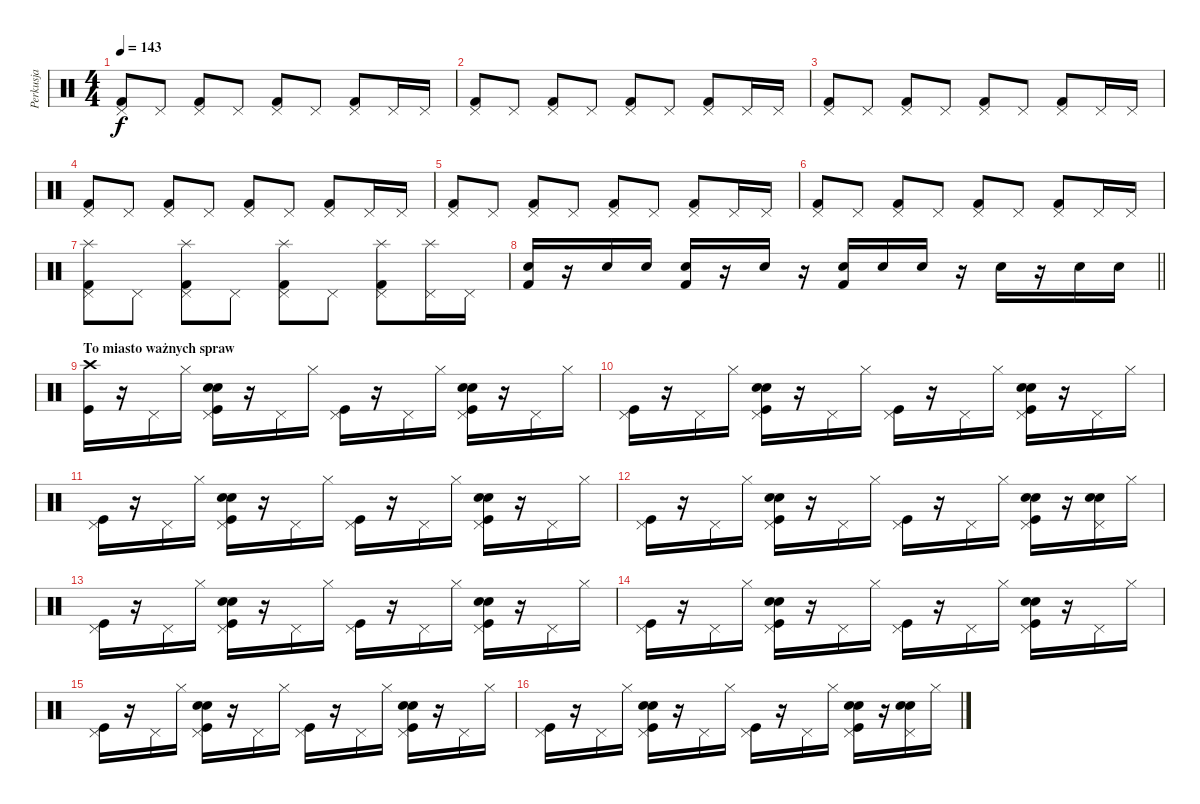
\track ("Perkusja" "Perkusja") {instrument percussion}
\staff {score}
\articulation defaults
\ts (4 4)
\tempo 143
\clef neutral
\ks c
("Pedal Hi-Hat (hit)" "Kick (hit) 2").8{dy f} "Pedal Hi-Hat (hit)".8 ("Pedal Hi-Hat (hit)" "Kick (hit) 2").8 "Pedal Hi-Hat (hit)".8 ("Pedal Hi-Hat (hit)" "Kick (hit) 2").8 "Pedal Hi-Hat (hit)".8 ("Pedal Hi-Hat (hit)" "Kick (hit) 2").8 "Pedal Hi-Hat (hit)".16 "Pedal Hi-Hat (hit)".16 |
("Pedal Hi-Hat (hit)" "Kick (hit) 2").8 "Pedal Hi-Hat (hit)".8 ("Pedal Hi-Hat (hit)" "Kick (hit) 2").8 "Pedal Hi-Hat (hit)".8 ("Pedal Hi-Hat (hit)" "Kick (hit) 2").8 "Pedal Hi-Hat (hit)".8 ("Pedal Hi-Hat (hit)" "Kick (hit) 2").8 "Pedal Hi-Hat (hit)".16 "Pedal Hi-Hat (hit)".16 |
("Pedal Hi-Hat (hit)" "Kick (hit) 2").8 "Pedal Hi-Hat (hit)".8 ("Pedal Hi-Hat (hit)" "Kick (hit) 2").8 "Pedal Hi-Hat (hit)".8 ("Pedal Hi-Hat (hit)" "Kick (hit) 2").8 "Pedal Hi-Hat (hit)".8 ("Pedal Hi-Hat (hit)" "Kick (hit) 2").8 "Pedal Hi-Hat (hit)".16 "Pedal Hi-Hat (hit)".16 |
("Pedal Hi-Hat (hit)" "Kick (hit) 2").8 "Pedal Hi-Hat (hit)".8 ("Pedal Hi-Hat (hit)" "Kick (hit) 2").8 "Pedal Hi-Hat (hit)".8 ("Pedal Hi-Hat (hit)" "Kick (hit) 2").8 "Pedal Hi-Hat (hit)".8 ("Pedal Hi-Hat (hit)" "Kick (hit) 2").8 "Pedal Hi-Hat (hit)".16 "Pedal Hi-Hat (hit)".16 |
("Pedal Hi-Hat (hit)" "Kick (hit) 2").8 "Pedal Hi-Hat (hit)".8 ("Pedal Hi-Hat (hit)" "Kick (hit) 2").8 "Pedal Hi-Hat (hit)".8 ("Pedal Hi-Hat (hit)" "Kick (hit) 2").8 "Pedal Hi-Hat (hit)".8 ("Pedal Hi-Hat (hit)" "Kick (hit) 2").8 "Pedal Hi-Hat (hit)".16 "Pedal Hi-Hat (hit)".16 |
("Pedal Hi-Hat (hit)" "Kick (hit) 2").8 "Pedal Hi-Hat (hit)".8 ("Pedal Hi-Hat (hit)" "Kick (hit) 2").8 "Pedal Hi-Hat (hit)".8 ("Pedal Hi-Hat (hit)" "Kick (hit) 2").8 "Pedal Hi-Hat (hit)".8 ("Pedal Hi-Hat (hit)" "Kick (hit) 2").8 "Pedal Hi-Hat (hit)".16 "Pedal Hi-Hat (hit)".16 |
("Splash (hit)" "Pedal Hi-Hat (hit)" "Kick (hit) 2").8 "Pedal Hi-Hat (hit)".8 ("Splash (hit)" "Pedal Hi-Hat (hit)" "Kick (hit) 2").8 "Pedal Hi-Hat (hit)".8 ("Splash (hit)" "Pedal Hi-Hat (hit)" "Kick (hit) 2").8 "Pedal Hi-Hat (hit)".8 ("Splash (hit)" "Pedal Hi-Hat (hit)" "Kick (hit) 2").8 ("Splash (hit)" "Pedal Hi-Hat (hit)").16 "Pedal Hi-Hat (hit)".16 |
\barLineRight lightlight
("Snare (hit) 2" "Kick (hit) 2").16 r.16 "Snare (hit) 2".16 "Snare (hit) 2".16 ("Snare (hit) 2" "Kick (hit) 2").16 r.16 "Snare (hit) 2".16 r.16 ("Electric Snare (hit)" "Kick (hit) 2").16 "Snare (hit) 2".16 "Electric Snare (hit)".16 r.16 "Snare (hit) 2".16 r.16 "Electric Snare (hit)".16 "Snare (hit) 2".16 |
\section ("" "To miasto ważnych spraw")
("Crash high (hit)" "Kick (hit)").16 r.16 "Pedal Hi-Hat (hit)".16 "Hi-Hat (closed)".16 ("Pedal Hi-Hat (hit)" "Hand Clap (hit)" "Snare (hit) 2" "Kick (hit)").16 r.16 "Pedal Hi-Hat (hit)".16 "Hi-Hat (closed)".16 ("Pedal Hi-Hat (hit)" "Kick (hit)").16 r.16 "Pedal Hi-Hat (hit)".16 "Hi-Hat (closed)".16 ("Pedal Hi-Hat (hit)" "Hand Clap (hit)" "Snare (hit) 2" "Kick (hit)").16 r.16 "Pedal Hi-Hat (hit)".16 "Hi-Hat (closed)".16 |
("Pedal Hi-Hat (hit)" "Kick (hit)").16 r.16 "Pedal Hi-Hat (hit)".16 "Hi-Hat (closed)".16 ("Pedal Hi-Hat (hit)" "Hand Clap (hit)" "Snare (hit) 2" "Kick (hit)").16 r.16 "Pedal Hi-Hat (hit)".16 "Hi-Hat (closed)".16 ("Pedal Hi-Hat (hit)" "Kick (hit)").16 r.16 "Pedal Hi-Hat (hit)".16 "Hi-Hat (closed)".16 ("Pedal Hi-Hat (hit)" "Hand Clap (hit)" "Snare (hit) 2" "Kick (hit)").16 r.16 "Pedal Hi-Hat (hit)".16 "Hi-Hat (closed)".16 |
("Pedal Hi-Hat (hit)" "Kick (hit)").16 r.16 "Pedal Hi-Hat (hit)".16 "Hi-Hat (closed)".16 ("Pedal Hi-Hat (hit)" "Hand Clap (hit)" "Snare (hit) 2" "Kick (hit)").16 r.16 "Pedal Hi-Hat (hit)".16 "Hi-Hat (closed)".16 ("Pedal Hi-Hat (hit)" "Kick (hit)").16 r.16 "Pedal Hi-Hat (hit)".16 "Hi-Hat (closed)".16 ("Pedal Hi-Hat (hit)" "Hand Clap (hit)" "Snare (hit) 2" "Kick (hit)").16 r.16 "Pedal Hi-Hat (hit)".16 "Hi-Hat (closed)".16 |
("Pedal Hi-Hat (hit)" "Kick (hit)").16 r.16 "Pedal Hi-Hat (hit)".16 "Hi-Hat (closed)".16 ("Pedal Hi-Hat (hit)" "Hand Clap (hit)" "Snare (hit) 2" "Kick (hit)").16 r.16 "Pedal Hi-Hat (hit)".16 "Hi-Hat (closed)".16 ("Pedal Hi-Hat (hit)" "Kick (hit)").16 r.16 "Pedal Hi-Hat (hit)".16 "Hi-Hat (closed)".16 ("Pedal Hi-Hat (hit)" "Hand Clap (hit)" "Snare (hit) 2" "Kick (hit)").16 r.16 ("Pedal Hi-Hat (hit)" "Hand Clap (hit)" "Snare (hit) 2").16 "Hi-Hat (closed)".16 |
("Pedal Hi-Hat (hit)" "Kick (hit)").16 r.16 "Pedal Hi-Hat (hit)".16 "Hi-Hat (closed)".16 ("Pedal Hi-Hat (hit)" "Hand Clap (hit)" "Snare (hit) 2" "Kick (hit)").16 r.16 "Pedal Hi-Hat (hit)".16 "Hi-Hat (closed)".16 ("Pedal Hi-Hat (hit)" "Kick (hit)").16 r.16 "Pedal Hi-Hat (hit)".16 "Hi-Hat (closed)".16 ("Pedal Hi-Hat (hit)" "Hand Clap (hit)" "Snare (hit) 2" "Kick (hit)").16 r.16 "Pedal Hi-Hat (hit)".16 "Hi-Hat (closed)".16 |
("Pedal Hi-Hat (hit)" "Kick (hit)").16 r.16 "Pedal Hi-Hat (hit)".16 "Hi-Hat (closed)".16 ("Pedal Hi-Hat (hit)" "Hand Clap (hit)" "Snare (hit) 2" "Kick (hit)").16 r.16 "Pedal Hi-Hat (hit)".16 "Hi-Hat (closed)".16 ("Pedal Hi-Hat (hit)" "Kick (hit)").16 r.16 "Pedal Hi-Hat (hit)".16 "Hi-Hat (closed)".16 ("Pedal Hi-Hat (hit)" "Hand Clap (hit)" "Snare (hit) 2" "Kick (hit)").16 r.16 "Pedal Hi-Hat (hit)".16 "Hi-Hat (closed)".16 |
("Pedal Hi-Hat (hit)" "Kick (hit)").16 r.16 "Pedal Hi-Hat (hit)".16 "Hi-Hat (closed)".16 ("Pedal Hi-Hat (hit)" "Hand Clap (hit)" "Snare (hit) 2" "Kick (hit)").16 r.16 "Pedal Hi-Hat (hit)".16 "Hi-Hat (closed)".16 ("Pedal Hi-Hat (hit)" "Kick (hit)").16 r.16 "Pedal Hi-Hat (hit)".16 "Hi-Hat (closed)".16 ("Pedal Hi-Hat (hit)" "Hand Clap (hit)" "Snare (hit) 2" "Kick (hit)").16 r.16 "Pedal Hi-Hat (hit)".16 "Hi-Hat (closed)".16 |
("Pedal Hi-Hat (hit)" "Kick (hit)").16 r.16 "Pedal Hi-Hat (hit)".16 "Hi-Hat (closed)".16 ("Pedal Hi-Hat (hit)" "Hand Clap (hit)" "Snare (hit) 2" "Kick (hit)").16 r.16 "Pedal Hi-Hat (hit)".16 "Hi-Hat (closed)".16 ("Pedal Hi-Hat (hit)" "Kick (hit)").16 r.16 "Pedal Hi-Hat (hit)".16 "Hi-Hat (closed)".16 ("Pedal Hi-Hat (hit)" "Hand Clap (hit)" "Snare (hit) 2" "Kick (hit)").16 r.16 ("Pedal Hi-Hat (hit)" "Hand Clap (hit)" "Snare (hit) 2").16 "Hi-Hat (closed)".16
